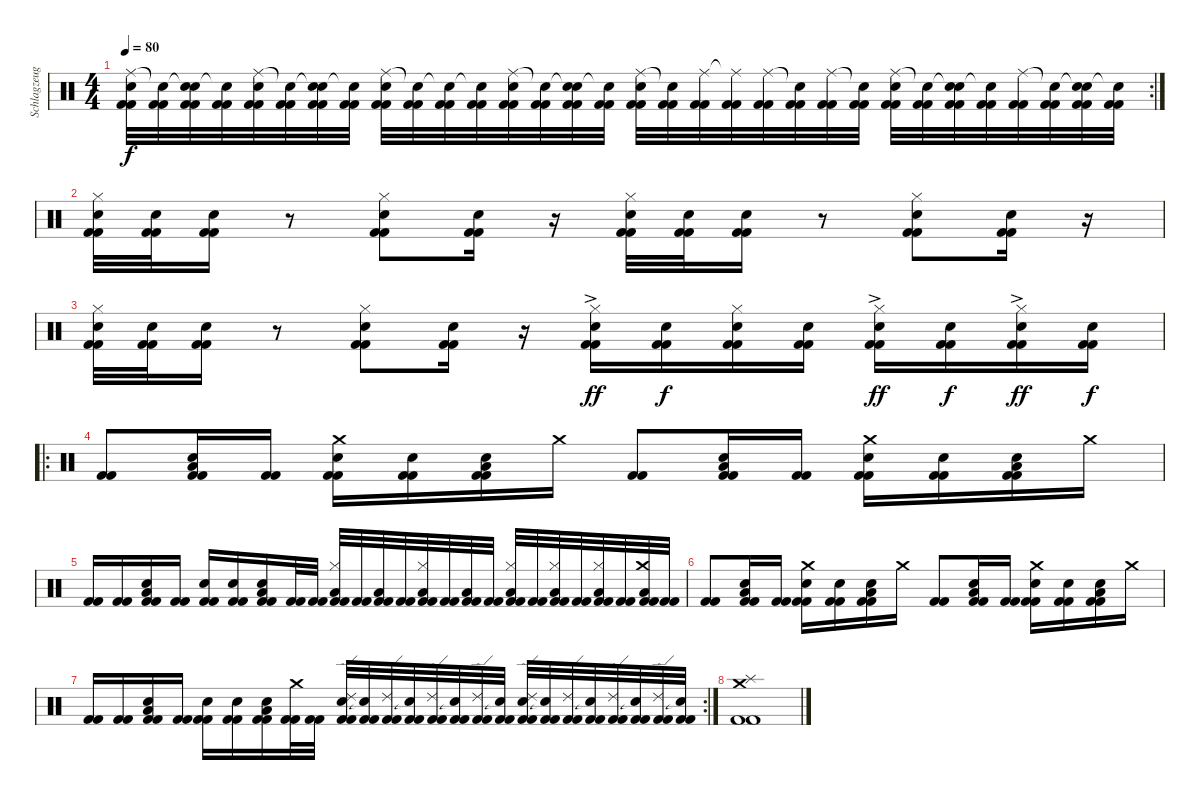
\track ("Schlagzeug" "Schlagzeug") {instrument percussion}
\staff {score}
\articulation defaults
\rc 2
\ts (4 4)
\tempo 80
\clef neutral
\ks c
("Ride (middle)" "Snare (hit) 2" "Kick (hit) 2" "Kick (hit) 2").32{dy f} ("Snare (hit)"{t} "Kick (hit) 2" "Kick (hit) 2").32 ("Snare (hit)"{t} "Snare (hit) 2" "Kick (hit) 2" "Kick (hit) 2").32 ("Snare (hit)"{t} "Kick (hit) 2" "Kick (hit) 2").32 ("Ride (middle)" "Snare (hit) 2" "Kick (hit) 2" "Kick (hit) 2").32 ("Snare (hit)"{t} "Kick (hit) 2" "Kick (hit) 2").32 ("Snare (hit)"{t} "Snare (hit) 2" "Kick (hit) 2" "Kick (hit) 2").32 ("Snare (hit)"{t} "Kick (hit) 2" "Kick (hit) 2").32 ("Ride (middle)" "Snare (hit) 2" "Kick (hit) 2" "Kick (hit) 2").32 ("Snare (hit)"{t} "Kick (hit) 2" "Kick (hit) 2").32 ("Snare (hit)"{t} "Kick (hit) 2" "Kick (hit) 2").32 ("Snare (hit)"{t} "Kick (hit) 2" "Kick (hit) 2").32 ("Ride (middle)" "Snare (hit) 2" "Kick (hit) 2" "Kick (hit) 2").32 ("Snare (hit)"{t} "Kick (hit) 2" "Kick (hit) 2").32 ("Snare (hit)"{t} "Snare (hit) 2" "Kick (hit) 2" "Kick (hit) 2").32 ("Snare (hit)"{t} "Kick (hit) 2" "Kick (hit) 2").32 ("Ride (middle)" "Snare (hit) 2" "Kick (hit) 2" "Kick (hit) 2").32 ("Snare (hit)"{t} "Kick (hit) 2" "Kick (hit) 2").32 ("Ride (middle)" "Kick (hit) 2" "Kick (hit) 2").32 ("Ride (middle)"{t} "Kick (hit) 2" "Kick (hit) 2").32 ("Ride (middle)" "Kick (hit) 2" "Kick (hit) 2").32 ("Snare (hit)"{t} "Kick (hit) 2" "Kick (hit) 2").32 ("Ride (middle)" "Kick (hit) 2" "Kick (hit) 2").32 ("Snare (hit)"{t} "Kick (hit) 2" "Kick (hit) 2").32 ("Ride (middle)" "Snare (hit) 2" "Kick (hit) 2" "Kick (hit) 2").32 ("Snare (hit)"{t} "Kick (hit) 2" "Kick (hit) 2").32 ("Snare (hit)"{t} "Snare (hit) 2" "Kick (hit) 2" "Kick (hit) 2").32 ("Snare (hit)"{t} "Kick (hit) 2" "Kick (hit) 2").32 ("Ride (middle)" "Kick (hit) 2" "Kick (hit) 2").32 ("Snare (hit)"{t} "Kick (hit) 2" "Kick (hit) 2").32 ("Snare (hit)"{t} "Snare (hit) 2" "Kick (hit) 2" "Kick (hit) 2").32 ("Snare (hit)"{t} "Kick (hit) 2" "Kick (hit) 2").32 |
("Hi-Hat (closed)" "Snare (hit) 2" "Kick (hit) 2" "Kick (hit) 2").32 ("Snare (hit) 2" "Kick (hit) 2" "Kick (hit) 2").32 ("Snare (hit) 2" "Kick (hit) 2" "Kick (hit) 2").16 r.8 ("Hi-Hat (closed)" "Snare (hit) 2" "Kick (hit) 2" "Kick (hit) 2").8 ("Snare (hit) 2" "Kick (hit) 2" "Kick (hit) 2").16 r.16 ("Hi-Hat (closed)" "Snare (hit) 2" "Kick (hit) 2" "Kick (hit) 2").32 ("Snare (hit) 2" "Kick (hit) 2" "Kick (hit) 2").32 ("Snare (hit) 2" "Kick (hit) 2" "Kick (hit) 2").16 r.8 ("Hi-Hat (closed)" "Snare (hit) 2" "Kick (hit) 2" "Kick (hit) 2").8 ("Snare (hit) 2" "Kick (hit) 2" "Kick (hit) 2").16 r.16 |
("Hi-Hat (closed)" "Snare (hit) 2" "Kick (hit) 2" "Kick (hit) 2").32 ("Snare (hit) 2" "Kick (hit) 2" "Kick (hit) 2").32 ("Snare (hit) 2" "Kick (hit) 2" "Kick (hit) 2").16 r.8 ("Hi-Hat (closed)" "Snare (hit) 2" "Kick (hit) 2" "Kick (hit) 2").8 ("Snare (hit) 2" "Kick (hit) 2" "Kick (hit) 2").16 r.16 ("Hi-Hat (closed)" "Snare (hit) 2"{ac} "Kick (hit) 2" "Kick (hit) 2").16{dy ff} ("Snare (hit) 2" "Kick (hit) 2" "Kick (hit) 2").16{dy f} ("Hi-Hat (closed)" "Snare (hit) 2" "Kick (hit) 2" "Kick (hit) 2").16 ("Snare (hit) 2" "Kick (hit) 2" "Kick (hit) 2").16 ("Hi-Hat (closed)" "Snare (hit) 2"{ac} "Kick (hit) 2" "Kick (hit) 2").16{dy ff} ("Snare (hit) 2" "Kick (hit) 2" "Kick (hit) 2").16{dy f} ("Hi-Hat (closed)" "Snare (hit) 2"{ac} "Kick (hit) 2" "Kick (hit) 2").16{dy ff} ("Snare (hit) 2" "Kick (hit) 2" "Kick (hit) 2").16{dy f} |
\ro
("Kick (hit) 2" "Kick (hit) 2").8 ("Snare (hit) 2" "Low Tom (hit)" "Kick (hit) 2" "Kick (hit) 2").16 ("Kick (hit) 2" "Kick (hit) 2").16 ("Crash medium (hit)" "Snare (hit) 2" "Kick (hit) 2" "Kick (hit) 2").16 ("Snare (hit) 2" "Kick (hit) 2" "Kick (hit) 2").16 ("Snare (hit) 2" "Low Tom (hit)" "Kick (hit) 2" "Kick (hit) 2").16 "Crash medium (hit)".16 ("Kick (hit) 2" "Kick (hit) 2").8 ("Snare (hit) 2" "Low Tom (hit)" "Kick (hit) 2" "Kick (hit) 2").16 ("Kick (hit) 2" "Kick (hit) 2").16 ("Crash medium (hit)" "Snare (hit) 2" "Kick (hit) 2" "Kick (hit) 2").16 ("Snare (hit) 2" "Kick (hit) 2" "Kick (hit) 2").16 ("Snare (hit) 2" "Low Tom (hit)" "Kick (hit) 2" "Kick (hit) 2").16 "Crash medium (hit)".16 |
("Kick (hit) 2" "Kick (hit) 2").16 ("Kick (hit) 2" "Kick (hit) 2").16 ("Snare (hit) 2" "Low Tom (hit)" "Kick (hit) 2" "Kick (hit) 2").16 ("Kick (hit) 2" "Kick (hit) 2").16 ("Snare (hit) 2" "Kick (hit) 2" "Kick (hit) 2").16 ("Snare (hit) 2" "Kick (hit) 2" "Kick (hit) 2").16 ("Snare (hit) 2" "Low Tom (hit)" "Kick (hit) 2" "Kick (hit) 2").16 ("Kick (hit) 2" "Kick (hit) 2").32 ("Kick (hit) 2" "Kick (hit) 2").32 ("Hi-Hat (closed)" "Low Floor Tom (hit)" "Kick (hit) 2" "Kick (hit) 2").32 ("Kick (hit) 2" "Kick (hit) 2").32 ("Low Floor Tom (hit)" "Kick (hit) 2" "Kick (hit) 2").32 ("Kick (hit) 2" "Kick (hit) 2").32 ("Hi-Hat (closed)" "Low Floor Tom (hit)" "Kick (hit) 2" "Kick (hit) 2").32 ("Kick (hit) 2" "Kick (hit) 2").32 ("Low Floor Tom (hit)" "Kick (hit) 2" "Kick (hit) 2").32 ("Kick (hit) 2" "Kick (hit) 2").32 ("Hi-Hat (closed)" "Low Floor Tom (hit)" "Kick (hit) 2" "Kick (hit) 2").32 ("Kick (hit) 2" "Kick (hit) 2").32 ("Hi-Hat (closed)" "Low Floor Tom (hit)" "Kick (hit) 2" "Kick (hit) 2").32 ("Kick (hit) 2" "Kick (hit) 2").32 ("Hi-Hat (closed)" "Low Floor Tom (hit)" "Kick (hit) 2" "Kick (hit) 2").32 ("Kick (hit) 2" "Kick (hit) 2").32 ("Crash medium (hit)" "Low Floor Tom (hit)" "Kick (hit) 2" "Kick (hit) 2").32 ("Kick (hit) 2" "Kick (hit) 2").32 |
("Kick (hit) 2" "Kick (hit) 2").8 ("Snare (hit) 2" "Low Tom (hit)" "Kick (hit) 2" "Kick (hit) 2").16 ("Kick (hit) 2" "Kick (hit) 2").16 ("Crash medium (hit)" "Snare (hit) 2" "Kick (hit) 2" "Kick (hit) 2").16 ("Snare (hit) 2" "Kick (hit) 2" "Kick (hit) 2").16 ("Snare (hit) 2" "Low Tom (hit)" "Kick (hit) 2" "Kick (hit) 2").16 "Crash medium (hit)".16 ("Kick (hit) 2" "Kick (hit) 2").8 ("Snare (hit) 2" "Low Tom (hit)" "Kick (hit) 2" "Kick (hit) 2").16 ("Kick (hit) 2" "Kick (hit) 2").16 ("Crash medium (hit)" "Snare (hit) 2" "Kick (hit) 2" "Kick (hit) 2").16 ("Snare (hit) 2" "Kick (hit) 2" "Kick (hit) 2").16 ("Snare (hit) 2" "Low Tom (hit)" "Kick (hit) 2" "Kick (hit) 2").16 "Crash medium (hit)".16 |
\rc 2
("Kick (hit) 2" "Kick (hit) 2").16 ("Kick (hit) 2" "Kick (hit) 2").16 ("Snare (hit) 2" "Low Tom (hit)" "Kick (hit) 2" "Kick (hit) 2").16 ("Kick (hit) 2" "Kick (hit) 2").16 ("Snare (hit) 2" "Kick (hit) 2" "Kick (hit) 2").16 ("Snare (hit) 2" "Kick (hit) 2" "Kick (hit) 2").16 ("Snare (hit) 2" "Low Tom (hit)" "Kick (hit) 2" "Kick (hit) 2").16 ("Crash medium (hit)" "Kick (hit) 2" "Kick (hit) 2").32 ("Kick (hit) 2" "Kick (hit) 2").32 ("Ride (edge) 2" "Snare (hit) 2" "Kick (hit) 2" "Kick (hit) 2").32 ("Snare (hit)"{t} "Kick (hit) 2" "Kick (hit) 2").32 ("Ride (edge) 2" "Kick (hit) 2" "Kick (hit) 2").32 ("Snare (hit)"{t} "Kick (hit) 2" "Kick (hit) 2").32 ("Ride (edge) 2" "Kick (hit) 2" "Kick (hit) 2").32 ("Snare (hit)"{t} "Kick (hit) 2" "Kick (hit) 2").32 ("Ride (edge) 2" "Kick (hit) 2" "Kick (hit) 2").32 ("Snare (hit)"{t} "Kick (hit) 2" "Kick (hit) 2").32 ("Ride (edge) 2" "Snare (hit) 2" "Kick (hit) 2" "Kick (hit) 2").32 ("Snare (hit)"{t} "Kick (hit) 2" "Kick (hit) 2").32 ("Ride (edge) 2" "Kick (hit) 2" "Kick (hit) 2").32 ("Snare (hit)"{t} "Kick (hit) 2" "Kick (hit) 2").32 ("Ride (edge) 2" "Kick (hit) 2" "Kick (hit) 2").32 ("Snare (hit)"{t} "Kick (hit) 2" "Kick (hit) 2").32 ("Ride (edge) 2" "Kick (hit) 2" "Kick (hit) 2").32 ("Snare (hit)"{t} "Kick (hit) 2" "Kick (hit) 2").32 |
("Splash (hit)" "Crash medium (hit)" "Kick (hit) 2" "Kick (hit) 2").1
